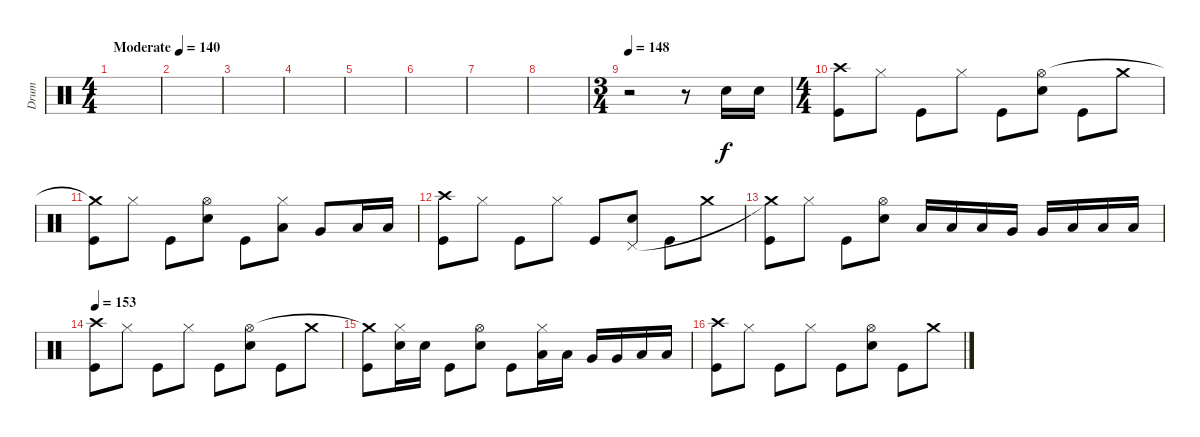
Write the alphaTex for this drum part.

\track ("Drum" "Drum") {instrument percussion}
\staff {score}
\articulation defaults
\ts (4 4)
\tempo (140 "Moderate")
\clef neutral
\ks c
|
|
|
|
|
|
|
|
\ts (3 4)
\tempo 148
r.2 r.8 "Snare (hit) 2".16 "Snare (hit) 2".16 |
\ts (4 4)
("Kick (hit)" "Crash high (hit)").8 "Hi-Hat (closed)".8 "Kick (hit)".8 "Hi-Hat (closed)".8 "Kick (hit)".8 ("Snare (hit) 2" "Hi-Hat (open)").8 "Kick (hit)".8 "Crash medium (hit)".8 |
("Kick (hit)" "Crash medium (hit)"{t}).8 "Hi-Hat (closed)".8 "Kick (hit)".8 ("Snare (hit) 2" "Hi-Hat (open)").8 "Kick (hit)".8 ("Hi-Hat (closed)" "Low Tom (hit)").8 "Very Low Tom (hit)".8 "Low Floor Tom (hit)".16 "Low Floor Tom (hit)".16 |
("Kick (hit)" "Crash high (hit)").8 "Hi-Hat (closed)".8 "Kick (hit)".8 "Hi-Hat (closed)".8 "Kick (hit)".8 ("Snare (hit) 2" "Pedal Hi-Hat (hit)").8 "Kick (hit)".8 "Crash medium (hit)".8 |
("Kick (hit)" "Crash medium (hit)"{t}).8 "Hi-Hat (closed)".8 "Kick (hit)".8 ("Snare (hit) 2" "Hi-Hat (open)").8 "Low Tom (hit)".16 "Low Tom (hit)".16 "Low Tom (hit)".16 "Very Low Tom (hit)".16 "Very Low Tom (hit)".16 "Low Floor Tom (hit)".16 "Low Floor Tom (hit)".16 "Low Floor Tom (hit)".16 |
\tempo 153
("Kick (hit)" "Crash high (hit)").8 "Hi-Hat (closed)".8 "Kick (hit)".8 "Hi-Hat (closed)".8 "Kick (hit)".8 ("Snare (hit) 2" "Hi-Hat (open)").8 "Kick (hit)".8 "Crash medium (hit)".8 |
("Kick (hit)" "Crash medium (hit)"{t}).8 ("Hi-Hat (closed)" "Snare (hit) 2").16 "Snare (hit) 2".16 "Kick (hit)".8 ("Snare (hit) 2" "Hi-Hat (open)").8 "Kick (hit)".8 ("Hi-Hat (closed)" "Low Tom (hit)").16 "Low Tom (hit)".16 "Very Low Tom (hit)".16 "Very Low Tom (hit)".16 "Low Floor Tom (hit)".16 "Low Floor Tom (hit)".16 |
("Kick (hit)" "Crash high (hit)").8 "Hi-Hat (closed)".8 "Kick (hit)".8 "Hi-Hat (closed)".8 "Kick (hit)".8 ("Snare (hit) 2" "Hi-Hat (open)").8 "Kick (hit)".8 "Crash medium (hit)".8
